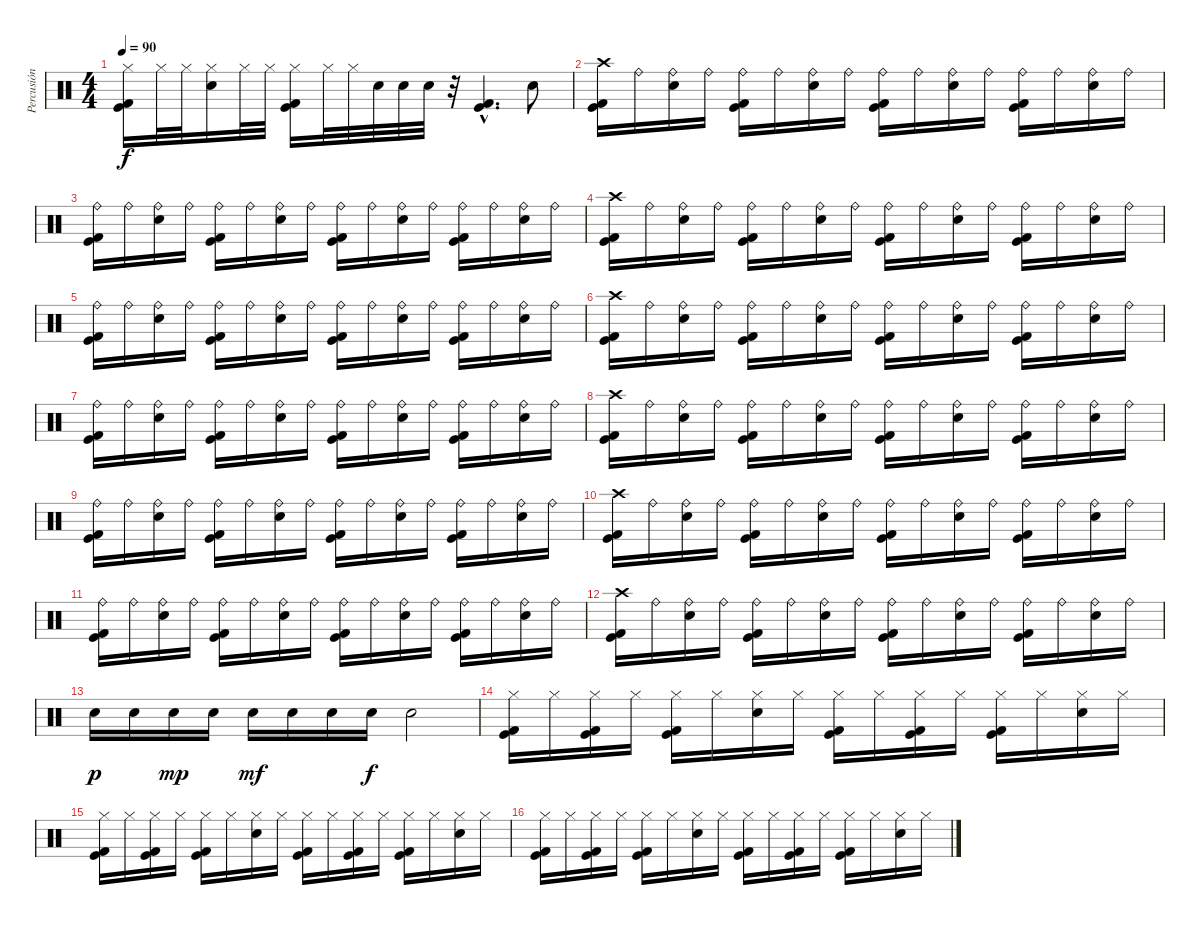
\track ("Percusión" "Percusión") {instrument percussion}
\staff {score}
\articulation defaults
\ts (4 4)
\tempo 90
\clef neutral
\ks c
("Kick (hit) 2" "Hi-Hat (closed)" "Kick (hit)").16{dy f} "Hi-Hat (closed)".32 "Hi-Hat (closed)".32 ("Snare (hit) 2" "Hi-Hat (closed)").16 "Hi-Hat (closed)".32 "Hi-Hat (closed)".32 ("Kick (hit) 2" "Hi-Hat (closed)" "Kick (hit)").16 "Hi-Hat (closed)".32 "Hi-Hat (closed)".32 "Snare (hit) 2".32 "Snare (hit) 2".32 "Snare (hit) 2".32 r.32 ("Kick (hit) 2"{hac} "Kick (hit)"{hac}).4{d} "Snare (hit) 2".8 |
("Kick (hit) 2" "Crash high (hit)" "Kick (hit)").16 "Ride (bell)".16 ("Snare (hit) 2" "Ride (bell)").16 "Ride (bell)".16 ("Kick (hit) 2" "Ride (bell)" "Kick (hit)").16 "Ride (bell)".16 ("Snare (hit) 2" "Ride (bell)").16 "Ride (bell)".16 ("Kick (hit) 2" "Ride (bell)" "Kick (hit)").16 "Ride (bell)".16 ("Snare (hit) 2" "Ride (bell)").16 "Ride (bell)".16 ("Kick (hit) 2" "Ride (bell)" "Kick (hit)").16 "Ride (bell)".16 ("Snare (hit) 2" "Ride (bell)").16 "Ride (bell)".16 |
("Kick (hit) 2" "Ride (bell)" "Kick (hit)").16 "Ride (bell)".16 ("Snare (hit) 2" "Ride (bell)").16 "Ride (bell)".16 ("Kick (hit) 2" "Ride (bell)" "Kick (hit)").16 "Ride (bell)".16 ("Snare (hit) 2" "Ride (bell)").16 "Ride (bell)".16 ("Kick (hit) 2" "Ride (bell)" "Kick (hit)").16 "Ride (bell)".16 ("Snare (hit) 2" "Ride (bell)").16 "Ride (bell)".16 ("Kick (hit) 2" "Ride (bell)" "Kick (hit)").16 "Ride (bell)".16 ("Snare (hit) 2" "Ride (bell)").16 "Ride (bell)".16 |
("Kick (hit) 2" "Crash high (hit)" "Kick (hit)").16 "Ride (bell)".16 ("Snare (hit) 2" "Ride (bell)").16 "Ride (bell)".16 ("Kick (hit) 2" "Ride (bell)" "Kick (hit)").16 "Ride (bell)".16 ("Snare (hit) 2" "Ride (bell)").16 "Ride (bell)".16 ("Kick (hit) 2" "Ride (bell)" "Kick (hit)").16 "Ride (bell)".16 ("Snare (hit) 2" "Ride (bell)").16 "Ride (bell)".16 ("Kick (hit) 2" "Ride (bell)" "Kick (hit)").16 "Ride (bell)".16 ("Snare (hit) 2" "Ride (bell)").16 "Ride (bell)".16 |
("Kick (hit) 2" "Ride (bell)" "Kick (hit)").16 "Ride (bell)".16 ("Snare (hit) 2" "Ride (bell)").16 "Ride (bell)".16 ("Kick (hit) 2" "Ride (bell)" "Kick (hit)").16 "Ride (bell)".16 ("Snare (hit) 2" "Ride (bell)").16 "Ride (bell)".16 ("Kick (hit) 2" "Ride (bell)" "Kick (hit)").16 "Ride (bell)".16 ("Snare (hit) 2" "Ride (bell)").16 "Ride (bell)".16 ("Kick (hit) 2" "Ride (bell)" "Kick (hit)").16 "Ride (bell)".16 ("Snare (hit) 2" "Ride (bell)").16 "Ride (bell)".16 |
("Kick (hit) 2" "Crash high (hit)" "Kick (hit)").16 "Ride (bell)".16 ("Snare (hit) 2" "Ride (bell)").16 "Ride (bell)".16 ("Kick (hit) 2" "Ride (bell)" "Kick (hit)").16 "Ride (bell)".16 ("Snare (hit) 2" "Ride (bell)").16 "Ride (bell)".16 ("Kick (hit) 2" "Ride (bell)" "Kick (hit)").16 "Ride (bell)".16 ("Snare (hit) 2" "Ride (bell)").16 "Ride (bell)".16 ("Kick (hit) 2" "Ride (bell)" "Kick (hit)").16 "Ride (bell)".16 ("Snare (hit) 2" "Ride (bell)").16 "Ride (bell)".16 |
("Kick (hit) 2" "Ride (bell)" "Kick (hit)").16 "Ride (bell)".16 ("Snare (hit) 2" "Ride (bell)").16 "Ride (bell)".16 ("Kick (hit) 2" "Ride (bell)" "Kick (hit)").16 "Ride (bell)".16 ("Snare (hit) 2" "Ride (bell)").16 "Ride (bell)".16 ("Kick (hit) 2" "Ride (bell)" "Kick (hit)").16 "Ride (bell)".16 ("Snare (hit) 2" "Ride (bell)").16 "Ride (bell)".16 ("Kick (hit) 2" "Ride (bell)" "Kick (hit)").16 "Ride (bell)".16 ("Snare (hit) 2" "Ride (bell)").16 "Ride (bell)".16 |
("Kick (hit) 2" "Crash high (hit)" "Kick (hit)").16 "Ride (bell)".16 ("Snare (hit) 2" "Ride (bell)").16 "Ride (bell)".16 ("Kick (hit) 2" "Ride (bell)" "Kick (hit)").16 "Ride (bell)".16 ("Snare (hit) 2" "Ride (bell)").16 "Ride (bell)".16 ("Kick (hit) 2" "Ride (bell)" "Kick (hit)").16 "Ride (bell)".16 ("Snare (hit) 2" "Ride (bell)").16 "Ride (bell)".16 ("Kick (hit) 2" "Ride (bell)" "Kick (hit)").16 "Ride (bell)".16 ("Snare (hit) 2" "Ride (bell)").16 "Ride (bell)".16 |
("Kick (hit) 2" "Ride (bell)" "Kick (hit)").16 "Ride (bell)".16 ("Snare (hit) 2" "Ride (bell)").16 "Ride (bell)".16 ("Kick (hit) 2" "Ride (bell)" "Kick (hit)").16 "Ride (bell)".16 ("Snare (hit) 2" "Ride (bell)").16 "Ride (bell)".16 ("Kick (hit) 2" "Ride (bell)" "Kick (hit)").16 "Ride (bell)".16 ("Snare (hit) 2" "Ride (bell)").16 "Ride (bell)".16 ("Kick (hit) 2" "Ride (bell)" "Kick (hit)").16 "Ride (bell)".16 ("Snare (hit) 2" "Ride (bell)").16 "Ride (bell)".16 |
("Kick (hit) 2" "Crash high (hit)" "Kick (hit)").16 "Ride (bell)".16 ("Snare (hit) 2" "Ride (bell)").16 "Ride (bell)".16 ("Kick (hit) 2" "Ride (bell)" "Kick (hit)").16 "Ride (bell)".16 ("Snare (hit) 2" "Ride (bell)").16 "Ride (bell)".16 ("Kick (hit) 2" "Ride (bell)" "Kick (hit)").16 "Ride (bell)".16 ("Snare (hit) 2" "Ride (bell)").16 "Ride (bell)".16 ("Kick (hit) 2" "Ride (bell)" "Kick (hit)").16 "Ride (bell)".16 ("Snare (hit) 2" "Ride (bell)").16 "Ride (bell)".16 |
("Kick (hit) 2" "Ride (bell)" "Kick (hit)").16 "Ride (bell)".16 ("Snare (hit) 2" "Ride (bell)").16 "Ride (bell)".16 ("Kick (hit) 2" "Ride (bell)" "Kick (hit)").16 "Ride (bell)".16 ("Snare (hit) 2" "Ride (bell)").16 "Ride (bell)".16 ("Kick (hit) 2" "Ride (bell)" "Kick (hit)").16 "Ride (bell)".16 ("Snare (hit) 2" "Ride (bell)").16 "Ride (bell)".16 ("Kick (hit) 2" "Ride (bell)" "Kick (hit)").16 "Ride (bell)".16 ("Snare (hit) 2" "Ride (bell)").16 "Ride (bell)".16 |
("Kick (hit) 2" "Crash high (hit)" "Kick (hit)").16 "Ride (bell)".16 ("Snare (hit) 2" "Ride (bell)").16 "Ride (bell)".16 ("Kick (hit) 2" "Ride (bell)" "Kick (hit)").16 "Ride (bell)".16 ("Snare (hit) 2" "Ride (bell)").16 "Ride (bell)".16 ("Kick (hit) 2" "Ride (bell)" "Kick (hit)").16 "Ride (bell)".16 ("Snare (hit) 2" "Ride (bell)").16 "Ride (bell)".16 ("Kick (hit) 2" "Ride (bell)" "Kick (hit)").16 "Ride (bell)".16 ("Snare (hit) 2" "Ride (bell)").16 "Ride (bell)".16 |
"Snare (hit) 2".16{dy p} "Snare (hit) 2".16 "Snare (hit) 2".16{dy mp} "Snare (hit) 2".16 "Snare (hit) 2".16{dy mf} "Snare (hit) 2".16 "Snare (hit) 2".16 "Snare (hit) 2".16{dy f} "Snare (hit) 2".2 |
("Kick (hit) 2" "Hi-Hat (closed)" "Kick (hit)").16 "Hi-Hat (closed)".16 ("Kick (hit) 2" "Hi-Hat (closed)" "Kick (hit)").16 "Hi-Hat (closed)".16 ("Kick (hit) 2" "Hi-Hat (closed)" "Kick (hit)").16 "Hi-Hat (closed)".16 ("Snare (hit) 2" "Hi-Hat (closed)").16 "Hi-Hat (closed)".16 ("Kick (hit) 2" "Hi-Hat (closed)" "Kick (hit)").16 "Hi-Hat (closed)".16 ("Kick (hit) 2" "Hi-Hat (closed)" "Kick (hit)").16 "Hi-Hat (closed)".16 ("Kick (hit) 2" "Hi-Hat (closed)" "Kick (hit)").16 "Hi-Hat (closed)".16 ("Snare (hit) 2" "Hi-Hat (closed)").16 "Hi-Hat (closed)".16 |
("Kick (hit) 2" "Hi-Hat (closed)" "Kick (hit)").16 "Hi-Hat (closed)".16 ("Kick (hit) 2" "Hi-Hat (closed)" "Kick (hit)").16 "Hi-Hat (closed)".16 ("Kick (hit) 2" "Hi-Hat (closed)" "Kick (hit)").16 "Hi-Hat (closed)".16 ("Snare (hit) 2" "Hi-Hat (closed)").16 "Hi-Hat (closed)".16 ("Kick (hit) 2" "Hi-Hat (closed)" "Kick (hit)").16 "Hi-Hat (closed)".16 ("Kick (hit) 2" "Hi-Hat (closed)" "Kick (hit)").16 "Hi-Hat (closed)".16 ("Kick (hit) 2" "Hi-Hat (closed)" "Kick (hit)").16 "Hi-Hat (closed)".16 ("Snare (hit) 2" "Hi-Hat (closed)").16 "Hi-Hat (closed)".16 |
("Kick (hit) 2" "Hi-Hat (closed)" "Kick (hit)").16 "Hi-Hat (closed)".16 ("Kick (hit) 2" "Hi-Hat (closed)" "Kick (hit)").16 "Hi-Hat (closed)".16 ("Kick (hit) 2" "Hi-Hat (closed)" "Kick (hit)").16 "Hi-Hat (closed)".16 ("Snare (hit) 2" "Hi-Hat (closed)").16 "Hi-Hat (closed)".16 ("Kick (hit) 2" "Hi-Hat (closed)" "Kick (hit)").16 "Hi-Hat (closed)".16 ("Kick (hit) 2" "Hi-Hat (closed)" "Kick (hit)").16 "Hi-Hat (closed)".16 ("Kick (hit) 2" "Hi-Hat (closed)" "Kick (hit)").16 "Hi-Hat (closed)".16 ("Snare (hit) 2" "Hi-Hat (closed)").16 "Hi-Hat (closed)".16
